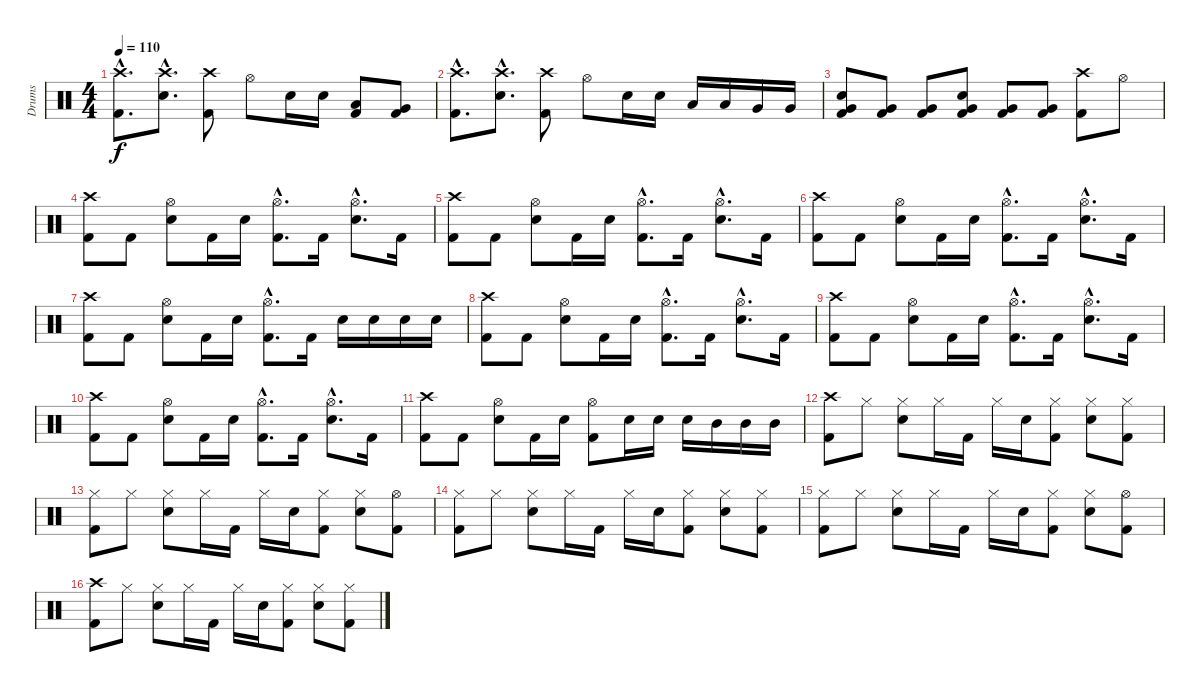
\track ("Drums" "Drums") {instrument percussion}
\staff {score}
\articulation defaults
\ts (4 4)
\tempo 110
\clef neutral
\ks c
("Crash high (hit)"{hac} "Kick (hit) 2"{hac}).8{d dy f} ("Crash high (hit)"{hac} "Snare (hit) 2"{hac}).8{d} ("Crash high (hit)" "Kick (hit) 2").8 "Hi-Hat (open)".8 "Snare (hit) 2".16 "Snare (hit) 2".16 ("Low Tom (hit)" "Kick (hit) 2").8 ("Very Low Tom (hit)" "Kick (hit) 2").8 |
("Crash high (hit)"{hac} "Kick (hit) 2"{hac}).8{d} ("Crash high (hit)"{hac} "Snare (hit) 2"{hac}).8{d} ("Crash high (hit)" "Kick (hit) 2").8 "Hi-Hat (open)".8 "Snare (hit) 2".16 "Snare (hit) 2".16 "Low Tom (hit)".16 "Low Tom (hit)".16 "Very Low Tom (hit)".16 "Very Low Tom (hit)".16 |
("Very Low Tom (hit)" "Snare (hit) 2" "Kick (hit) 2").8 ("Very Low Tom (hit)" "Kick (hit) 2").8 ("Very Low Tom (hit)" "Kick (hit) 2").8 ("Very Low Tom (hit)" "Snare (hit) 2" "Kick (hit) 2").8 ("Very Low Tom (hit)" "Kick (hit) 2").8 ("Very Low Tom (hit)" "Kick (hit) 2").8 ("Crash high (hit)" "Kick (hit) 2").8 "Hi-Hat (open)".8 |
("Crash high (hit)" "Kick (hit) 2").8 "Kick (hit) 2".8 ("Hi-Hat (open)" "Snare (hit) 2").8 "Kick (hit) 2".16 "Snare (hit) 2".16 ("Hi-Hat (open)"{hac} "Kick (hit) 2"{hac}).8{d} "Kick (hit) 2".16 ("Hi-Hat (open)"{hac} "Snare (hit) 2"{hac}).8{d} "Kick (hit) 2".16 |
("Crash high (hit)" "Kick (hit) 2").8 "Kick (hit) 2".8 ("Hi-Hat (open)" "Snare (hit) 2").8 "Kick (hit) 2".16 "Snare (hit) 2".16 ("Hi-Hat (open)"{hac} "Kick (hit) 2"{hac}).8{d} "Kick (hit) 2".16 ("Hi-Hat (open)"{hac} "Snare (hit) 2"{hac}).8{d} "Kick (hit) 2".16 |
("Crash high (hit)" "Kick (hit) 2").8 "Kick (hit) 2".8 ("Hi-Hat (open)" "Snare (hit) 2").8 "Kick (hit) 2".16 "Snare (hit) 2".16 ("Hi-Hat (open)"{hac} "Kick (hit) 2"{hac}).8{d} "Kick (hit) 2".16 ("Hi-Hat (open)"{hac} "Snare (hit) 2"{hac}).8{d} "Kick (hit) 2".16 |
("Crash high (hit)" "Kick (hit) 2").8 "Kick (hit) 2".8 ("Hi-Hat (open)" "Snare (hit) 2").8 "Kick (hit) 2".16 "Snare (hit) 2".16 ("Hi-Hat (open)"{hac} "Kick (hit) 2"{hac}).8{d} "Kick (hit) 2".16 "Snare (hit) 2".16 "Snare (hit) 2".16 "Snare (hit) 2".16 "Snare (hit) 2".16 |
("Crash high (hit)" "Kick (hit) 2").8 "Kick (hit) 2".8 ("Hi-Hat (open)" "Snare (hit) 2").8 "Kick (hit) 2".16 "Snare (hit) 2".16 ("Hi-Hat (open)"{hac} "Kick (hit) 2"{hac}).8{d} "Kick (hit) 2".16 ("Hi-Hat (open)"{hac} "Snare (hit) 2"{hac}).8{d} "Kick (hit) 2".16 |
("Crash high (hit)" "Kick (hit) 2").8 "Kick (hit) 2".8 ("Hi-Hat (open)" "Snare (hit) 2").8 "Kick (hit) 2".16 "Snare (hit) 2".16 ("Hi-Hat (open)"{hac} "Kick (hit) 2"{hac}).8{d} "Kick (hit) 2".16 ("Hi-Hat (open)"{hac} "Snare (hit) 2"{hac}).8{d} "Kick (hit) 2".16 |
("Crash high (hit)" "Kick (hit) 2").8 "Kick (hit) 2".8 ("Hi-Hat (open)" "Snare (hit) 2").8 "Kick (hit) 2".16 "Snare (hit) 2".16 ("Hi-Hat (open)"{hac} "Kick (hit) 2"{hac}).8{d} "Kick (hit) 2".16 ("Hi-Hat (open)"{hac} "Snare (hit) 2"{hac}).8{d} "Kick (hit) 2".16 |
("Crash high (hit)" "Kick (hit) 2").8 "Kick (hit) 2".8 ("Hi-Hat (open)" "Snare (hit) 2").8 "Kick (hit) 2".16 "Snare (hit) 2".16 ("Hi-Hat (open)" "Kick (hit) 2").8 "Snare (hit) 2".16 "Snare (hit) 2".16 "Snare (hit) 2".16 "Mid Tom (hit)".16 "Mid Tom (hit)".16 "Mid Tom (hit)".16 |
("Crash high (hit)" "Kick (hit) 2").8 "Hi-Hat (closed)".8 ("Hi-Hat (closed)" "Snare (hit) 2").8 "Hi-Hat (closed)".16 "Kick (hit) 2".16 "Hi-Hat (closed)".16 "Snare (hit) 2".16 ("Hi-Hat (closed)" "Kick (hit) 2").8 ("Hi-Hat (closed)" "Snare (hit) 2").8 ("Hi-Hat (closed)" "Kick (hit) 2").8 |
("Hi-Hat (closed)" "Kick (hit) 2").8 "Hi-Hat (closed)".8 ("Hi-Hat (closed)" "Snare (hit) 2").8 "Hi-Hat (closed)".16 "Kick (hit) 2".16 "Hi-Hat (closed)".16 "Snare (hit) 2".16 ("Hi-Hat (closed)" "Kick (hit) 2").8 ("Hi-Hat (closed)" "Snare (hit) 2").8 ("Hi-Hat (open)" "Kick (hit) 2").8 |
("Hi-Hat (closed)" "Kick (hit) 2").8 "Hi-Hat (closed)".8 ("Hi-Hat (closed)" "Snare (hit) 2").8 "Hi-Hat (closed)".16 "Kick (hit) 2".16 "Hi-Hat (closed)".16 "Snare (hit) 2".16 ("Hi-Hat (closed)" "Kick (hit) 2").8 ("Hi-Hat (closed)" "Snare (hit) 2").8 ("Hi-Hat (closed)" "Kick (hit) 2").8 |
("Hi-Hat (closed)" "Kick (hit) 2").8 "Hi-Hat (closed)".8 ("Hi-Hat (closed)" "Snare (hit) 2").8 "Hi-Hat (closed)".16 "Kick (hit) 2".16 "Hi-Hat (closed)".16 "Snare (hit) 2".16 ("Hi-Hat (closed)" "Kick (hit) 2").8 ("Hi-Hat (closed)" "Snare (hit) 2").8 ("Hi-Hat (open)" "Kick (hit) 2").8 |
("Crash high (hit)" "Kick (hit) 2").8 "Hi-Hat (closed)".8 ("Hi-Hat (closed)" "Snare (hit) 2").8 "Hi-Hat (closed)".16 "Kick (hit) 2".16 "Hi-Hat (closed)".16 "Snare (hit) 2".16 ("Hi-Hat (closed)" "Kick (hit) 2").8 ("Hi-Hat (closed)" "Snare (hit) 2").8 ("Hi-Hat (closed)" "Kick (hit) 2").8
